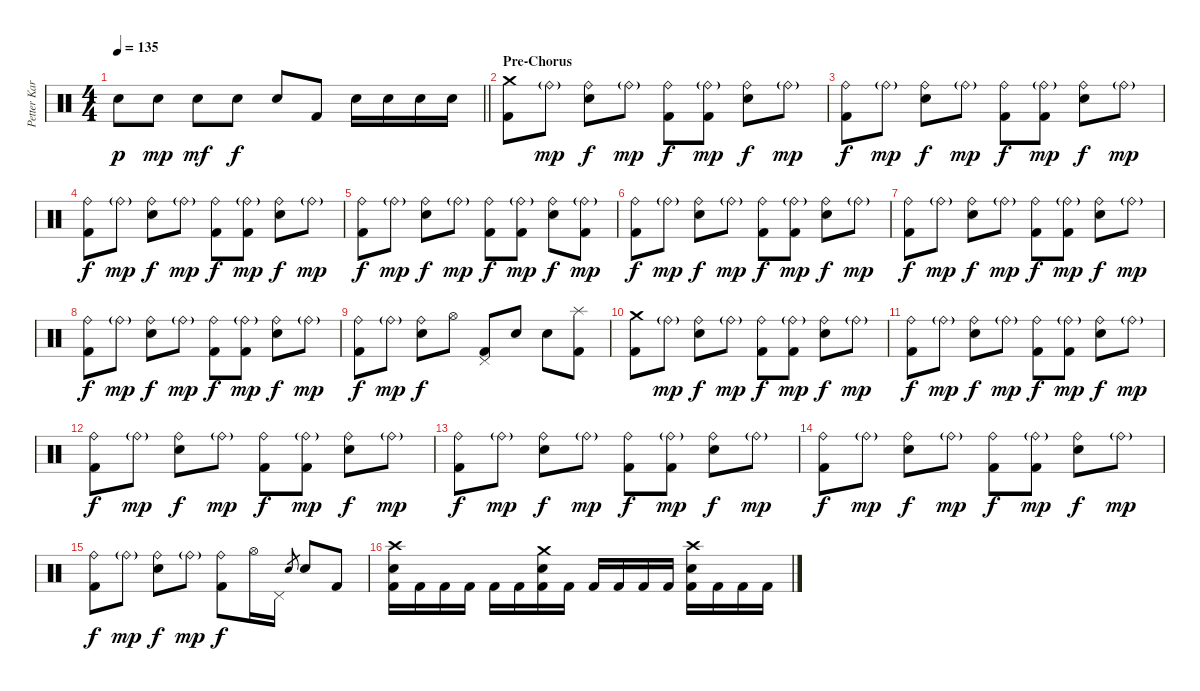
\track ("Petter Karlsson" "Petter Kar") {instrument percussion}
\staff {score}
\articulation defaults
\ts (4 4)
\tempo 135
\clef neutral
\barLineRight lightlight
\ks c "Electric Snare (hit)".8{dy p} "Electric Snare (hit)".8{dy mp} "Electric Snare (hit)".8{dy mf} "Electric Snare (hit)".8{dy f} "Electric Snare (hit)".8 "Kick (hit) 2".8 "Electric Snare (hit)".16 "Electric Snare (hit)".16 "Electric Snare (hit)".16 "Electric Snare (hit)".16
|
\section ("" "Pre-Chorus")
("Crash medium (hit)" "Kick (hit) 2").8 "Ride (bell)"{g}.8{dy mp} ("Ride (bell)" "Electric Snare (hit)").8{dy f} "Ride (bell)"{g}.8{dy mp} ("Ride (bell)" "Kick (hit) 2").8{dy f} ("Ride (bell)"{g} "Kick (hit) 2").8{dy mp} ("Ride (bell)" "Electric Snare (hit)").8{dy f} "Ride (bell)"{g}.8{dy mp} |
("Ride (bell)" "Kick (hit) 2").8{dy f} "Ride (bell)"{g}.8{dy mp} ("Ride (bell)" "Electric Snare (hit)").8{dy f} "Ride (bell)"{g}.8{dy mp} ("Ride (bell)" "Kick (hit) 2").8{dy f} ("Ride (bell)"{g} "Kick (hit) 2").8{dy mp} ("Ride (bell)" "Electric Snare (hit)").8{dy f} "Ride (bell)"{g}.8{dy mp} |
("Ride (bell)" "Kick (hit) 2").8{dy f} "Ride (bell)"{g}.8{dy mp} ("Ride (bell)" "Electric Snare (hit)").8{dy f} "Ride (bell)"{g}.8{dy mp} ("Ride (bell)" "Kick (hit) 2").8{dy f} ("Ride (bell)"{g} "Kick (hit) 2").8{dy mp} ("Ride (bell)" "Electric Snare (hit)").8{dy f} "Ride (bell)"{g}.8{dy mp} |
("Ride (bell)" "Kick (hit) 2").8{dy f} "Ride (bell)"{g}.8{dy mp} ("Ride (bell)" "Electric Snare (hit)").8{dy f} "Ride (bell)"{g}.8{dy mp} ("Ride (bell)" "Kick (hit) 2").8{dy f} ("Ride (bell)"{g} "Kick (hit) 2").8{dy mp} ("Ride (bell)" "Electric Snare (hit)").8{dy f} ("Ride (bell)"{g} "Kick (hit) 2").8{dy mp} |
("Ride (bell)" "Kick (hit) 2").8{dy f} "Ride (bell)"{g}.8{dy mp} ("Ride (bell)" "Electric Snare (hit)").8{dy f} "Ride (bell)"{g}.8{dy mp} ("Ride (bell)" "Kick (hit) 2").8{dy f} ("Ride (bell)"{g} "Kick (hit) 2").8{dy mp} ("Ride (bell)" "Electric Snare (hit)").8{dy f} "Ride (bell)"{g}.8{dy mp} |
("Ride (bell)" "Kick (hit) 2").8{dy f} "Ride (bell)"{g}.8{dy mp} ("Ride (bell)" "Electric Snare (hit)").8{dy f} "Ride (bell)"{g}.8{dy mp} ("Ride (bell)" "Kick (hit) 2").8{dy f} ("Ride (bell)"{g} "Kick (hit) 2").8{dy mp} ("Ride (bell)" "Electric Snare (hit)").8{dy f} "Ride (bell)"{g}.8{dy mp} |
("Ride (bell)" "Kick (hit) 2").8{dy f} "Ride (bell)"{g}.8{dy mp} ("Ride (bell)" "Electric Snare (hit)").8{dy f} "Ride (bell)"{g}.8{dy mp} ("Ride (bell)" "Kick (hit) 2").8{dy f} ("Ride (bell)"{g} "Kick (hit) 2").8{dy mp} ("Ride (bell)" "Electric Snare (hit)").8{dy f} "Ride (bell)"{g}.8{dy mp} |
("Ride (bell)" "Kick (hit) 2").8{dy f} "Ride (bell)"{g}.8{dy mp} ("Ride (bell)" "Electric Snare (hit)").8{dy f} "Hi-Hat (open)".8 ("Pedal Hi-Hat (hit)" "Kick (hit) 2").8 "Electric Snare (hit)".8 "Electric Snare (hit)".8 ("Splash (hit)" "Kick (hit) 2").8 |
("Crash medium (hit)" "Kick (hit) 2").8 "Ride (bell)"{g}.8{dy mp} ("Ride (bell)" "Electric Snare (hit)").8{dy f} "Ride (bell)"{g}.8{dy mp} ("Ride (bell)" "Kick (hit) 2").8{dy f} ("Ride (bell)"{g} "Kick (hit) 2").8{dy mp} ("Ride (bell)" "Electric Snare (hit)").8{dy f} "Ride (bell)"{g}.8{dy mp} |
("Ride (bell)" "Kick (hit) 2").8{dy f} "Ride (bell)"{g}.8{dy mp} ("Ride (bell)" "Electric Snare (hit)").8{dy f} "Ride (bell)"{g}.8{dy mp} ("Ride (bell)" "Kick (hit) 2").8{dy f} ("Ride (bell)"{g} "Kick (hit) 2").8{dy mp} ("Ride (bell)" "Electric Snare (hit)").8{dy f} "Ride (bell)"{g}.8{dy mp} |
("Ride (bell)" "Kick (hit) 2").8{dy f} "Ride (bell)"{g}.8{dy mp} ("Ride (bell)" "Electric Snare (hit)").8{dy f} "Ride (bell)"{g}.8{dy mp} ("Ride (bell)" "Kick (hit) 2").8{dy f} ("Ride (bell)"{g} "Kick (hit) 2").8{dy mp} ("Ride (bell)" "Electric Snare (hit)").8{dy f} "Ride (bell)"{g}.8{dy mp} |
("Ride (bell)" "Kick (hit) 2").8{dy f} "Ride (bell)"{g}.8{dy mp} ("Ride (bell)" "Electric Snare (hit)").8{dy f} "Ride (bell)"{g}.8{dy mp} ("Ride (bell)" "Kick (hit) 2").8{dy f} ("Ride (bell)"{g} "Kick (hit) 2").8{dy mp} ("Ride (bell)" "Electric Snare (hit)").8{dy f} "Ride (bell)"{g}.8{dy mp} |
("Ride (bell)" "Kick (hit) 2").8{dy f} "Ride (bell)"{g}.8{dy mp} ("Ride (bell)" "Electric Snare (hit)").8{dy f} "Ride (bell)"{g}.8{dy mp} ("Ride (bell)" "Kick (hit) 2").8{dy f} ("Ride (bell)"{g} "Kick (hit) 2").8{dy mp} ("Ride (bell)" "Electric Snare (hit)").8{dy f} "Ride (bell)"{g}.8{dy mp} |
("Ride (bell)" "Kick (hit) 2").8{dy f} "Ride (bell)"{g}.8{dy mp} ("Ride (bell)" "Electric Snare (hit)").8{dy f} "Ride (bell)"{g}.8{dy mp} ("Ride (bell)" "Kick (hit) 2").8{dy f} "Hi-Hat (open)".16 "Pedal Hi-Hat (hit)".16 "Electric Snare (hit)".8{gr} "Electric Snare (hit)".8 "Kick (hit) 2".8 |
("Crash high (hit)" "Electric Snare (hit)" "Kick (hit) 2").16 "Kick (hit) 2".16 "Kick (hit) 2".16 "Kick (hit) 2".16 "Kick (hit) 2".16 "Kick (hit) 2".16 ("Crash medium (hit)" "Electric Snare (hit)" "Kick (hit) 2").16 "Kick (hit) 2".16 "Kick (hit) 2".16 "Kick (hit) 2".16 "Kick (hit) 2".16 "Kick (hit) 2".16 ("Crash high (hit)" "Electric Snare (hit)" "Kick (hit) 2").16 "Kick (hit) 2".16 "Kick (hit) 2".16 "Kick (hit) 2".16
